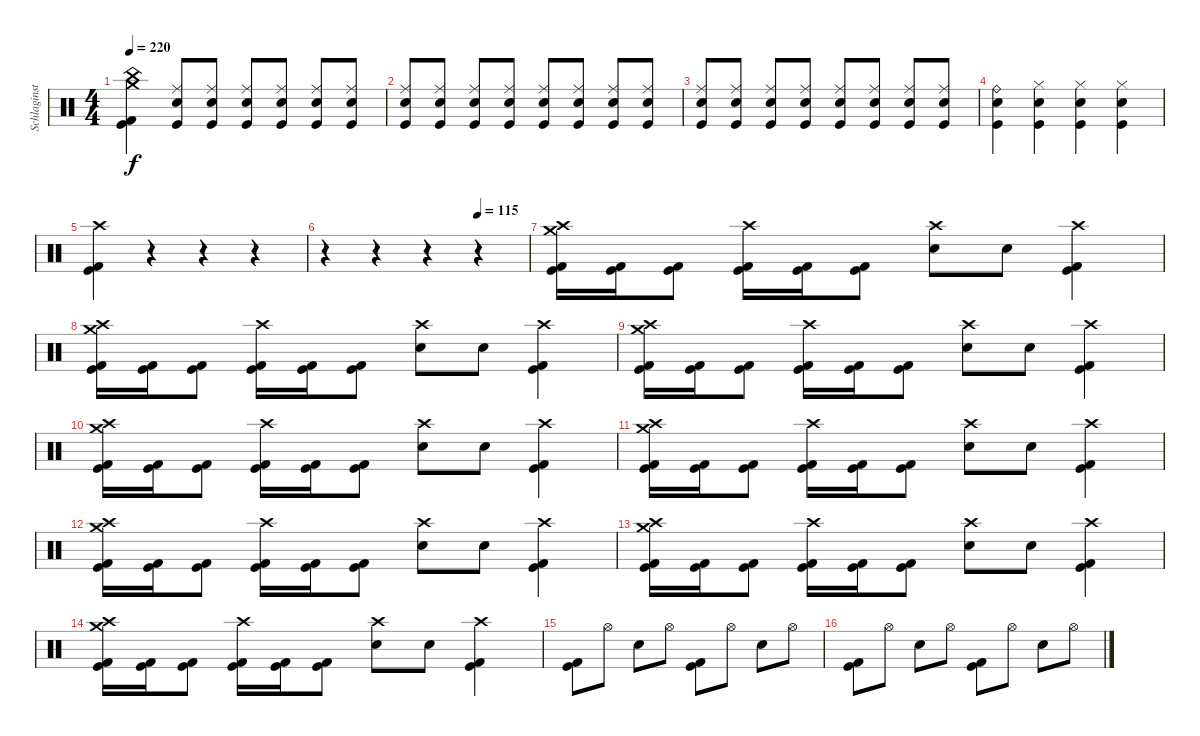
\track ("Schlaginstrumente - Auswahl" "Schlaginst") {instrument percussion}
\staff {score}
\articulation defaults
\ts (4 4)
\tempo 220
\clef neutral
\ks c
("Crash medium (hit)" "China (hit)" "Kick (hit) 2" "Kick (hit)").4{dy f} ("Ride (middle)" "Electric Snare (hit)" "Kick (hit)").8 ("Ride (middle)" "Electric Snare (hit)" "Kick (hit)").8 ("Ride (middle)" "Electric Snare (hit)" "Kick (hit)").8 ("Ride (middle)" "Electric Snare (hit)" "Kick (hit)").8 ("Ride (middle)" "Electric Snare (hit)" "Kick (hit)").8 ("Ride (middle)" "Electric Snare (hit)" "Kick (hit)").8 |
("Ride (middle)" "Electric Snare (hit)" "Kick (hit)").8 ("Ride (middle)" "Electric Snare (hit)" "Kick (hit)").8 ("Ride (middle)" "Electric Snare (hit)" "Kick (hit)").8 ("Ride (middle)" "Electric Snare (hit)" "Kick (hit)").8 ("Ride (middle)" "Electric Snare (hit)" "Kick (hit)").8 ("Ride (middle)" "Electric Snare (hit)" "Kick (hit)").8 ("Ride (middle)" "Electric Snare (hit)" "Kick (hit)").8 ("Ride (middle)" "Electric Snare (hit)" "Kick (hit)").8 |
("Ride (middle)" "Electric Snare (hit)" "Kick (hit)").8 ("Ride (middle)" "Electric Snare (hit)" "Kick (hit)").8 ("Ride (middle)" "Electric Snare (hit)" "Kick (hit)").8 ("Ride (middle)" "Electric Snare (hit)" "Kick (hit)").8 ("Ride (middle)" "Electric Snare (hit)" "Kick (hit)").8 ("Ride (middle)" "Electric Snare (hit)" "Kick (hit)").8 ("Ride (middle)" "Electric Snare (hit)" "Kick (hit)").8 ("Ride (middle)" "Electric Snare (hit)" "Kick (hit)").8 |
("Ride (bell)" "Electric Snare (hit)" "Kick (hit)").4 ("Hi-Hat (closed)" "Electric Snare (hit)" "Kick (hit)").4 ("Hi-Hat (closed)" "Electric Snare (hit)" "Kick (hit)").4 ("Hi-Hat (closed)" "Electric Snare (hit)" "Kick (hit)").4 |
("Crash high (hit)" "Kick (hit) 2" "Kick (hit)").4 r.4 r.4 r.4 |
\tempo (115 0.75)
r.4 r.4 r.4 r.4 |
("Crash medium (hit)" "Crash high (hit)" "Kick (hit) 2" "Kick (hit)").16 ("Kick (hit) 2" "Kick (hit)").16 ("Kick (hit) 2" "Kick (hit)").8 ("Crash high (hit)" "Kick (hit) 2" "Kick (hit)").16 ("Kick (hit) 2" "Kick (hit)").16 ("Kick (hit) 2" "Kick (hit)").8 ("Crash high (hit)" "Electric Snare (hit)").8 "Electric Snare (hit)".8 ("Crash high (hit)" "Kick (hit) 2" "Kick (hit)").4 |
("Crash medium (hit)" "Crash high (hit)" "Kick (hit) 2" "Kick (hit)").16 ("Kick (hit) 2" "Kick (hit)").16 ("Kick (hit) 2" "Kick (hit)").8 ("Crash high (hit)" "Kick (hit) 2" "Kick (hit)").16 ("Kick (hit) 2" "Kick (hit)").16 ("Kick (hit) 2" "Kick (hit)").8 ("Crash high (hit)" "Electric Snare (hit)").8 "Electric Snare (hit)".8 ("Crash high (hit)" "Kick (hit) 2" "Kick (hit)").4 |
("Crash medium (hit)" "Crash high (hit)" "Kick (hit) 2" "Kick (hit)").16 ("Kick (hit) 2" "Kick (hit)").16 ("Kick (hit) 2" "Kick (hit)").8 ("Crash high (hit)" "Kick (hit) 2" "Kick (hit)").16 ("Kick (hit) 2" "Kick (hit)").16 ("Kick (hit) 2" "Kick (hit)").8 ("Crash high (hit)" "Electric Snare (hit)").8 "Electric Snare (hit)".8 ("Crash high (hit)" "Kick (hit) 2" "Kick (hit)").4 |
("Crash medium (hit)" "Crash high (hit)" "Kick (hit) 2" "Kick (hit)").16 ("Kick (hit) 2" "Kick (hit)").16 ("Kick (hit) 2" "Kick (hit)").8 ("Crash high (hit)" "Kick (hit) 2" "Kick (hit)").16 ("Kick (hit) 2" "Kick (hit)").16 ("Kick (hit) 2" "Kick (hit)").8 ("Crash high (hit)" "Electric Snare (hit)").8 "Electric Snare (hit)".8 ("Crash high (hit)" "Kick (hit) 2" "Kick (hit)").4 |
("Crash medium (hit)" "Crash high (hit)" "Kick (hit) 2" "Kick (hit)").16 ("Kick (hit) 2" "Kick (hit)").16 ("Kick (hit) 2" "Kick (hit)").8 ("Crash high (hit)" "Kick (hit) 2" "Kick (hit)").16 ("Kick (hit) 2" "Kick (hit)").16 ("Kick (hit) 2" "Kick (hit)").8 ("Crash high (hit)" "Electric Snare (hit)").8 "Electric Snare (hit)".8 ("Crash high (hit)" "Kick (hit) 2" "Kick (hit)").4 |
("Crash medium (hit)" "Crash high (hit)" "Kick (hit) 2" "Kick (hit)").16 ("Kick (hit) 2" "Kick (hit)").16 ("Kick (hit) 2" "Kick (hit)").8 ("Crash high (hit)" "Kick (hit) 2" "Kick (hit)").16 ("Kick (hit) 2" "Kick (hit)").16 ("Kick (hit) 2" "Kick (hit)").8 ("Crash high (hit)" "Electric Snare (hit)").8 "Electric Snare (hit)".8 ("Crash high (hit)" "Kick (hit) 2" "Kick (hit)").4 |
("Crash medium (hit)" "Crash high (hit)" "Kick (hit) 2" "Kick (hit)").16 ("Kick (hit) 2" "Kick (hit)").16 ("Kick (hit) 2" "Kick (hit)").8 ("Crash high (hit)" "Kick (hit) 2" "Kick (hit)").16 ("Kick (hit) 2" "Kick (hit)").16 ("Kick (hit) 2" "Kick (hit)").8 ("Crash high (hit)" "Electric Snare (hit)").8 "Electric Snare (hit)".8 ("Crash high (hit)" "Kick (hit) 2" "Kick (hit)").4 |
("Crash medium (hit)" "Crash high (hit)" "Kick (hit) 2" "Kick (hit)").16 ("Kick (hit) 2" "Kick (hit)").16 ("Kick (hit) 2" "Kick (hit)").8 ("Crash high (hit)" "Kick (hit) 2" "Kick (hit)").16 ("Kick (hit) 2" "Kick (hit)").16 ("Kick (hit) 2" "Kick (hit)").8 ("Crash high (hit)" "Electric Snare (hit)").8 "Electric Snare (hit)".8 ("Crash high (hit)" "Kick (hit) 2" "Kick (hit)").4 |
("Kick (hit) 2" "Kick (hit)").8 "Hi-Hat (open)".8 "Electric Snare (hit)".8 "Hi-Hat (open)".8 ("Kick (hit) 2" "Kick (hit)").8 "Hi-Hat (open)".8 "Electric Snare (hit)".8 "Hi-Hat (open)".8 |
("Kick (hit) 2" "Kick (hit)").8 "Hi-Hat (open)".8 "Electric Snare (hit)".8 "Hi-Hat (open)".8 ("Kick (hit) 2" "Kick (hit)").8 "Hi-Hat (open)".8 "Electric Snare (hit)".8 "Hi-Hat (open)".8
